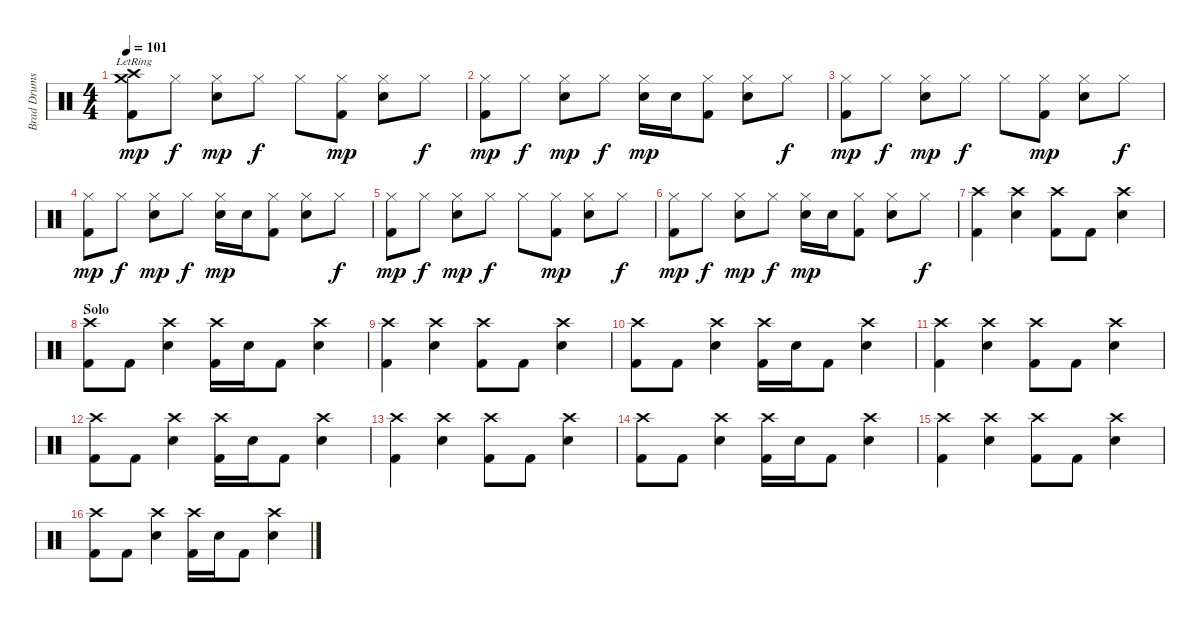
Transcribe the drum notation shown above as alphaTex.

\track ("Brad Drums" "Brad Drums") {instrument percussion}
\staff {score}
\articulation defaults
\ts (4 4)
\tempo 101
\clef neutral
\ks c
("Crash high (hit)"{lr} "Crash medium (hit)"{lr} "Kick (hit) 2").8{dy mp} "Hi-Hat (closed)".8{dy f} ("Hi-Hat (closed)" "Snare (hit) 2").8{dy mp} "Hi-Hat (closed)".8{dy f} "Hi-Hat (closed)".8 ("Hi-Hat (closed)" "Kick (hit) 2").8{dy mp} ("Hi-Hat (closed)" "Snare (hit) 2").8 "Hi-Hat (closed)".8{dy f} |
("Hi-Hat (closed)" "Kick (hit) 2").8{dy mp} "Hi-Hat (closed)".8{dy f} ("Hi-Hat (closed)" "Snare (hit) 2").8{dy mp} "Hi-Hat (closed)".8{dy f} ("Hi-Hat (closed)" "Snare (hit) 2").16{dy mp} "Snare (hit) 2".16 ("Hi-Hat (closed)" "Kick (hit) 2").8 ("Hi-Hat (closed)" "Snare (hit) 2").8 "Hi-Hat (closed)".8{dy f} |
("Hi-Hat (closed)" "Kick (hit) 2").8{dy mp} "Hi-Hat (closed)".8{dy f} ("Hi-Hat (closed)" "Snare (hit) 2").8{dy mp} "Hi-Hat (closed)".8{dy f} "Hi-Hat (closed)".8 ("Hi-Hat (closed)" "Kick (hit) 2").8{dy mp} ("Hi-Hat (closed)" "Snare (hit) 2").8 "Hi-Hat (closed)".8{dy f} |
("Hi-Hat (closed)" "Kick (hit) 2").8{dy mp} "Hi-Hat (closed)".8{dy f} ("Hi-Hat (closed)" "Snare (hit) 2").8{dy mp} "Hi-Hat (closed)".8{dy f} ("Hi-Hat (closed)" "Snare (hit) 2").16{dy mp} "Snare (hit) 2".16 ("Hi-Hat (closed)" "Kick (hit) 2").8 ("Hi-Hat (closed)" "Snare (hit) 2").8 "Hi-Hat (closed)".8{dy f} |
("Hi-Hat (closed)" "Kick (hit) 2").8{dy mp} "Hi-Hat (closed)".8{dy f} ("Hi-Hat (closed)" "Snare (hit) 2").8{dy mp} "Hi-Hat (closed)".8{dy f} "Hi-Hat (closed)".8 ("Hi-Hat (closed)" "Kick (hit) 2").8{dy mp} ("Hi-Hat (closed)" "Snare (hit) 2").8 "Hi-Hat (closed)".8{dy f} |
("Hi-Hat (closed)" "Kick (hit) 2").8{dy mp} "Hi-Hat (closed)".8{dy f} ("Hi-Hat (closed)" "Snare (hit) 2").8{dy mp} "Hi-Hat (closed)".8{dy f} ("Hi-Hat (closed)" "Snare (hit) 2").16{dy mp} "Snare (hit) 2".16 ("Hi-Hat (closed)" "Kick (hit) 2").8 ("Hi-Hat (closed)" "Snare (hit) 2").8 "Hi-Hat (closed)".8{dy f} |
("Crash high (hit)" "Kick (hit) 2").4 ("Crash high (hit)" "Electric Snare (hit)").4 ("Crash high (hit)" "Kick (hit) 2").8 "Kick (hit) 2".8 ("Crash high (hit)" "Electric Snare (hit)").4 |
\section ("" "Solo")
("Crash high (hit)" "Kick (hit) 2").8 "Kick (hit) 2".8 ("Crash high (hit)" "Electric Snare (hit)").4 ("Crash high (hit)" "Kick (hit) 2").16 "Electric Snare (hit)".16 "Kick (hit) 2".8 ("Crash high (hit)" "Electric Snare (hit)").4 |
("Crash high (hit)" "Kick (hit) 2").4 ("Crash high (hit)" "Electric Snare (hit)").4 ("Crash high (hit)" "Kick (hit) 2").8 "Kick (hit) 2".8 ("Crash high (hit)" "Electric Snare (hit)").4 |
("Crash high (hit)" "Kick (hit) 2").8 "Kick (hit) 2".8 ("Crash high (hit)" "Electric Snare (hit)").4 ("Crash high (hit)" "Kick (hit) 2").16 "Electric Snare (hit)".16 "Kick (hit) 2".8 ("Crash high (hit)" "Electric Snare (hit)").4 |
("Crash high (hit)" "Kick (hit) 2").4 ("Crash high (hit)" "Electric Snare (hit)").4 ("Crash high (hit)" "Kick (hit) 2").8 "Kick (hit) 2".8 ("Crash high (hit)" "Electric Snare (hit)").4 |
("Crash high (hit)" "Kick (hit) 2").8 "Kick (hit) 2".8 ("Crash high (hit)" "Electric Snare (hit)").4 ("Crash high (hit)" "Kick (hit) 2").16 "Electric Snare (hit)".16 "Kick (hit) 2".8 ("Crash high (hit)" "Electric Snare (hit)").4 |
("Crash high (hit)" "Kick (hit) 2").4 ("Crash high (hit)" "Electric Snare (hit)").4 ("Crash high (hit)" "Kick (hit) 2").8 "Kick (hit) 2".8 ("Crash high (hit)" "Electric Snare (hit)").4 |
("Crash high (hit)" "Kick (hit) 2").8 "Kick (hit) 2".8 ("Crash high (hit)" "Electric Snare (hit)").4 ("Crash high (hit)" "Kick (hit) 2").16 "Electric Snare (hit)".16 "Kick (hit) 2".8 ("Crash high (hit)" "Electric Snare (hit)").4 |
("Crash high (hit)" "Kick (hit) 2").4 ("Crash high (hit)" "Electric Snare (hit)").4 ("Crash high (hit)" "Kick (hit) 2").8 "Kick (hit) 2".8 ("Crash high (hit)" "Electric Snare (hit)").4 |
("Crash high (hit)" "Kick (hit) 2").8 "Kick (hit) 2".8 ("Crash high (hit)" "Electric Snare (hit)").4 ("Crash high (hit)" "Kick (hit) 2").16 "Electric Snare (hit)".16 "Kick (hit) 2".8 ("Crash high (hit)" "Electric Snare (hit)").4
